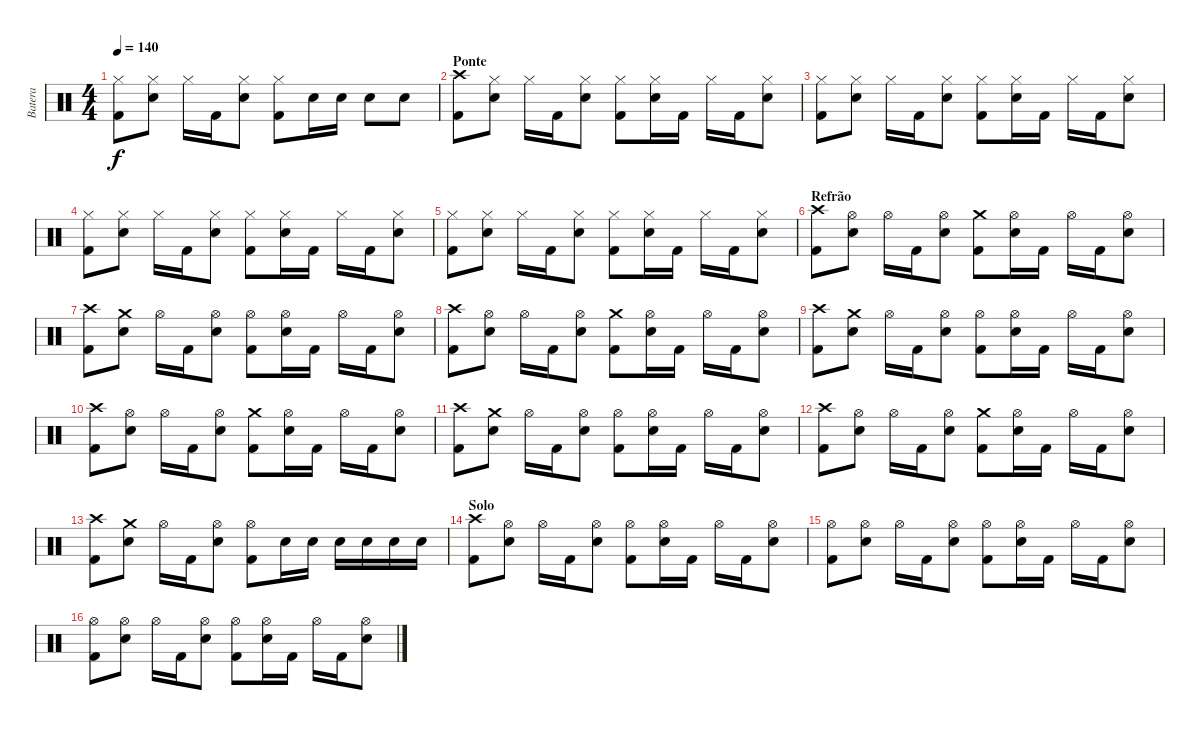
\track ("Batera" "Batera") {instrument percussion}
\staff {score}
\articulation defaults
\ts (4 4)
\tempo 140
\clef neutral
\ks c
("Hi-Hat (closed)" "Kick (hit) 2").8{dy f} ("Hi-Hat (closed)" "Snare (hit) 2").8 "Hi-Hat (closed)".16 "Kick (hit) 2".16 ("Hi-Hat (closed)" "Snare (hit) 2").8 ("Hi-Hat (closed)" "Kick (hit) 2").8 "Snare (hit) 2".16 "Snare (hit) 2".16 "Snare (hit) 2".8 "Snare (hit) 2".8 |
\section ("" "Ponte")
("Crash high (hit)" "Kick (hit) 2").8 ("Hi-Hat (closed)" "Snare (hit) 2").8 "Hi-Hat (closed)".16 "Kick (hit) 2".16 ("Hi-Hat (closed)" "Snare (hit) 2").8 ("Hi-Hat (closed)" "Kick (hit) 2").8 ("Hi-Hat (closed)" "Snare (hit) 2").16 "Kick (hit) 2".16 "Hi-Hat (closed)".16 "Kick (hit) 2".16 ("Hi-Hat (closed)" "Snare (hit) 2").8 |
("Hi-Hat (closed)" "Kick (hit) 2").8 ("Hi-Hat (closed)" "Snare (hit) 2").8 "Hi-Hat (closed)".16 "Kick (hit) 2".16 ("Hi-Hat (closed)" "Snare (hit) 2").8 ("Hi-Hat (closed)" "Kick (hit) 2").8 ("Hi-Hat (closed)" "Snare (hit) 2").16 "Kick (hit) 2".16 "Hi-Hat (closed)".16 "Kick (hit) 2".16 ("Hi-Hat (closed)" "Snare (hit) 2").8 |
("Hi-Hat (closed)" "Kick (hit) 2").8 ("Hi-Hat (closed)" "Snare (hit) 2").8 "Hi-Hat (closed)".16 "Kick (hit) 2".16 ("Hi-Hat (closed)" "Snare (hit) 2").8 ("Hi-Hat (closed)" "Kick (hit) 2").8 ("Hi-Hat (closed)" "Snare (hit) 2").16 "Kick (hit) 2".16 "Hi-Hat (closed)".16 "Kick (hit) 2".16 ("Hi-Hat (closed)" "Snare (hit) 2").8 |
("Hi-Hat (closed)" "Kick (hit) 2").8 ("Hi-Hat (closed)" "Snare (hit) 2").8 "Hi-Hat (closed)".16 "Kick (hit) 2".16 ("Hi-Hat (closed)" "Snare (hit) 2").8 ("Hi-Hat (closed)" "Kick (hit) 2").8 ("Hi-Hat (closed)" "Snare (hit) 2").16 "Kick (hit) 2".16 "Hi-Hat (closed)".16 "Kick (hit) 2".16 ("Hi-Hat (closed)" "Snare (hit) 2").8 |
\section ("" "Refrão")
("Crash high (hit)" "Kick (hit) 2").8 ("Hi-Hat (open)" "Snare (hit) 2").8 "Hi-Hat (open)".16 "Kick (hit) 2".16 ("Hi-Hat (open)" "Snare (hit) 2").8 ("Crash medium (hit)" "Kick (hit) 2").8 ("Hi-Hat (open)" "Snare (hit) 2").16 "Kick (hit) 2".16 "Hi-Hat (open)".16 "Kick (hit) 2".16 ("Hi-Hat (open)" "Snare (hit) 2").8 |
("Crash high (hit)" "Kick (hit) 2").8 ("Crash medium (hit)" "Snare (hit) 2").8 "Hi-Hat (open)".16 "Kick (hit) 2".16 ("Hi-Hat (open)" "Snare (hit) 2").8 ("Hi-Hat (open)" "Kick (hit) 2").8 ("Hi-Hat (open)" "Snare (hit) 2").16 "Kick (hit) 2".16 "Hi-Hat (open)".16 "Kick (hit) 2".16 ("Hi-Hat (open)" "Snare (hit) 2").8 |
("Crash high (hit)" "Kick (hit) 2").8 ("Hi-Hat (open)" "Snare (hit) 2").8 "Hi-Hat (open)".16 "Kick (hit) 2".16 ("Hi-Hat (open)" "Snare (hit) 2").8 ("Crash medium (hit)" "Kick (hit) 2").8 ("Hi-Hat (open)" "Snare (hit) 2").16 "Kick (hit) 2".16 "Hi-Hat (open)".16 "Kick (hit) 2".16 ("Hi-Hat (open)" "Snare (hit) 2").8 |
("Crash high (hit)" "Kick (hit) 2").8 ("Crash medium (hit)" "Snare (hit) 2").8 "Hi-Hat (open)".16 "Kick (hit) 2".16 ("Hi-Hat (open)" "Snare (hit) 2").8 ("Hi-Hat (open)" "Kick (hit) 2").8 ("Hi-Hat (open)" "Snare (hit) 2").16 "Kick (hit) 2".16 "Hi-Hat (open)".16 "Kick (hit) 2".16 ("Hi-Hat (open)" "Snare (hit) 2").8 |
("Crash high (hit)" "Kick (hit) 2").8 ("Hi-Hat (open)" "Snare (hit) 2").8 "Hi-Hat (open)".16 "Kick (hit) 2".16 ("Hi-Hat (open)" "Snare (hit) 2").8 ("Crash medium (hit)" "Kick (hit) 2").8 ("Hi-Hat (open)" "Snare (hit) 2").16 "Kick (hit) 2".16 "Hi-Hat (open)".16 "Kick (hit) 2".16 ("Hi-Hat (open)" "Snare (hit) 2").8 |
("Crash high (hit)" "Kick (hit) 2").8 ("Crash medium (hit)" "Snare (hit) 2").8 "Hi-Hat (open)".16 "Kick (hit) 2".16 ("Hi-Hat (open)" "Snare (hit) 2").8 ("Hi-Hat (open)" "Kick (hit) 2").8 ("Hi-Hat (open)" "Snare (hit) 2").16 "Kick (hit) 2".16 "Hi-Hat (open)".16 "Kick (hit) 2".16 ("Hi-Hat (open)" "Snare (hit) 2").8 |
("Crash high (hit)" "Kick (hit) 2").8 ("Hi-Hat (open)" "Snare (hit) 2").8 "Hi-Hat (open)".16 "Kick (hit) 2".16 ("Hi-Hat (open)" "Snare (hit) 2").8 ("Crash medium (hit)" "Kick (hit) 2").8 ("Hi-Hat (open)" "Snare (hit) 2").16 "Kick (hit) 2".16 "Hi-Hat (open)".16 "Kick (hit) 2".16 ("Hi-Hat (open)" "Snare (hit) 2").8 |
("Crash high (hit)" "Kick (hit) 2").8 ("Crash medium (hit)" "Snare (hit) 2").8 "Hi-Hat (open)".16 "Kick (hit) 2".16 ("Hi-Hat (open)" "Snare (hit) 2").8 ("Hi-Hat (open)" "Kick (hit) 2").8 "Snare (hit) 2".16 "Snare (hit) 2".16 "Snare (hit) 2".16 "Snare (hit) 2".16 "Snare (hit) 2".16 "Snare (hit) 2".16 |
\section ("" "Solo")
("Crash high (hit)" "Kick (hit) 2").8 ("Hi-Hat (open)" "Snare (hit) 2").8 "Hi-Hat (open)".16 "Kick (hit) 2".16 ("Hi-Hat (open)" "Snare (hit) 2").8 ("Hi-Hat (open)" "Kick (hit) 2").8 ("Hi-Hat (open)" "Snare (hit) 2").16 "Kick (hit) 2".16 "Hi-Hat (open)".16 "Kick (hit) 2".16 ("Hi-Hat (open)" "Snare (hit) 2").8 |
("Hi-Hat (open)" "Kick (hit) 2").8 ("Hi-Hat (open)" "Snare (hit) 2").8 "Hi-Hat (open)".16 "Kick (hit) 2".16 ("Hi-Hat (open)" "Snare (hit) 2").8 ("Hi-Hat (open)" "Kick (hit) 2").8 ("Hi-Hat (open)" "Snare (hit) 2").16 "Kick (hit) 2".16 "Hi-Hat (open)".16 "Kick (hit) 2".16 ("Hi-Hat (open)" "Snare (hit) 2").8 |
("Hi-Hat (open)" "Kick (hit) 2").8 ("Hi-Hat (open)" "Snare (hit) 2").8 "Hi-Hat (open)".16 "Kick (hit) 2".16 ("Hi-Hat (open)" "Snare (hit) 2").8 ("Hi-Hat (open)" "Kick (hit) 2").8 ("Hi-Hat (open)" "Snare (hit) 2").16 "Kick (hit) 2".16 "Hi-Hat (open)".16 "Kick (hit) 2".16 ("Hi-Hat (open)" "Snare (hit) 2").8
